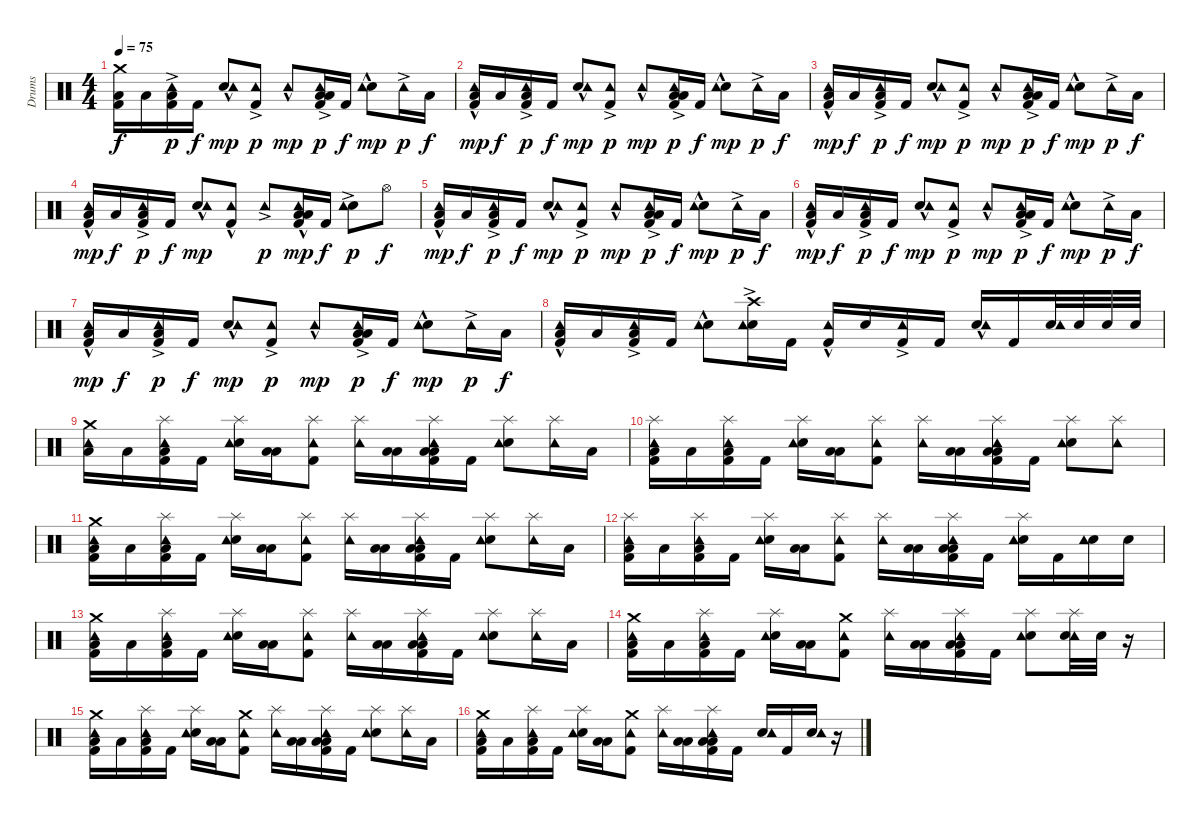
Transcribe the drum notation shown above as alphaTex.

\track ("Drums" "Drums") {instrument percussion}
\staff {score}
\articulation defaults
\ts (4 4)
\tempo 75
\clef neutral
\ks c
("Kick (hit) 2" "Low Floor Tom (hit)" "Crash medium (hit)").16{dy f} "Low Tom (hit)".16 ("Kick (hit) 2" "Low Floor Tom (hit)" "Tambourine (hit)"{ac}).16{dy p} "Kick (hit) 2".16{dy f} ("Snare (hit) 2" "Tambourine (hit)"{hac}).8{dy mp} ("Kick (hit) 2" "Tambourine (hit)"{ac}).8{dy p} "Tambourine (hit)"{hac}.8{dy mp} ("Kick (hit) 2" "Low Floor Tom (hit)" "Low Tom (hit)" "Tambourine (hit)"{ac}).16{dy p} "Kick (hit) 2".16{dy f} ("Snare (hit) 2" "Tambourine (hit)"{hac}).8{dy mp} "Tambourine (hit)"{ac}.16{dy p} "Low Tom (hit)".16{dy f} |
("Kick (hit) 2" "Low Floor Tom (hit)" "Tambourine (hit)"{hac}).16{dy mp} "Low Tom (hit)".16{dy f} ("Kick (hit) 2" "Low Floor Tom (hit)" "Tambourine (hit)"{ac}).16{dy p} "Kick (hit) 2".16{dy f} ("Snare (hit) 2" "Tambourine (hit)"{hac}).8{dy mp} ("Kick (hit) 2" "Tambourine (hit)"{ac}).8{dy p} "Tambourine (hit)"{hac}.8{dy mp} ("Kick (hit) 2" "Low Floor Tom (hit)" "Low Tom (hit)" "Tambourine (hit)"{ac}).16{dy p} "Kick (hit) 2".16{dy f} ("Snare (hit) 2" "Tambourine (hit)"{hac}).8{dy mp} "Tambourine (hit)"{ac}.16{dy p} "Low Tom (hit)".16{dy f} |
("Kick (hit) 2" "Low Floor Tom (hit)" "Tambourine (hit)"{hac}).16{dy mp} "Low Tom (hit)".16{dy f} ("Kick (hit) 2" "Low Floor Tom (hit)" "Tambourine (hit)"{ac}).16{dy p} "Kick (hit) 2".16{dy f} ("Snare (hit) 2" "Tambourine (hit)"{hac}).8{dy mp} ("Kick (hit) 2" "Tambourine (hit)"{ac}).8{dy p} "Tambourine (hit)"{hac}.8{dy mp} ("Kick (hit) 2" "Low Floor Tom (hit)" "Low Tom (hit)" "Tambourine (hit)"{ac}).16{dy p} "Kick (hit) 2".16{dy f} ("Snare (hit) 2" "Tambourine (hit)"{hac}).8{dy mp} "Tambourine (hit)"{ac}.16{dy p} "Low Tom (hit)".16{dy f} |
("Kick (hit) 2" "Low Floor Tom (hit)" "Tambourine (hit)"{hac}).16{dy mp} "Low Tom (hit)".16{dy f} ("Kick (hit) 2" "Low Floor Tom (hit)" "Tambourine (hit)"{ac}).16{dy p} "Kick (hit) 2".16{dy f} ("Snare (hit) 2" "Tambourine (hit)"{hac}).8{dy mp} ("Kick (hit) 2" "Tambourine (hit)"{hac}).8 "Tambourine (hit)"{ac}.8{dy p} ("Kick (hit) 2" "Low Floor Tom (hit)" "Low Tom (hit)" "Tambourine (hit)"{hac}).16{dy mp} "Kick (hit) 2".16{dy f} ("Snare (hit) 2" "Tambourine (hit)"{ac}).8{dy p} "Hi-Hat (open)".8{dy f} |
("Kick (hit) 2" "Low Floor Tom (hit)" "Tambourine (hit)"{hac}).16{dy mp} "Low Tom (hit)".16{dy f} ("Kick (hit) 2" "Low Floor Tom (hit)" "Tambourine (hit)"{ac}).16{dy p} "Kick (hit) 2".16{dy f} ("Snare (hit) 2" "Tambourine (hit)"{hac}).8{dy mp} ("Kick (hit) 2" "Tambourine (hit)"{ac}).8{dy p} "Tambourine (hit)"{hac}.8{dy mp} ("Kick (hit) 2" "Low Floor Tom (hit)" "Low Tom (hit)" "Tambourine (hit)"{ac}).16{dy p} "Kick (hit) 2".16{dy f} ("Snare (hit) 2" "Tambourine (hit)"{hac}).8{dy mp} "Tambourine (hit)"{ac}.16{dy p} "Low Tom (hit)".16{dy f} |
("Kick (hit) 2" "Low Floor Tom (hit)" "Tambourine (hit)"{hac}).16{dy mp} "Low Tom (hit)".16{dy f} ("Kick (hit) 2" "Low Floor Tom (hit)" "Tambourine (hit)"{ac}).16{dy p} "Kick (hit) 2".16{dy f} ("Snare (hit) 2" "Tambourine (hit)"{hac}).8{dy mp} ("Kick (hit) 2" "Tambourine (hit)"{ac}).8{dy p} "Tambourine (hit)"{hac}.8{dy mp} ("Kick (hit) 2" "Low Floor Tom (hit)" "Low Tom (hit)" "Tambourine (hit)"{ac}).16{dy p} "Kick (hit) 2".16{dy f} ("Snare (hit) 2" "Tambourine (hit)"{hac}).8{dy mp} "Tambourine (hit)"{ac}.16{dy p} "Low Tom (hit)".16{dy f} |
("Kick (hit) 2" "Low Floor Tom (hit)" "Tambourine (hit)"{hac}).16{dy mp} "Low Tom (hit)".16{dy f} ("Kick (hit) 2" "Low Floor Tom (hit)" "Tambourine (hit)"{ac}).16{dy p} "Kick (hit) 2".16{dy f} ("Snare (hit) 2" "Tambourine (hit)"{hac}).8{dy mp} ("Kick (hit) 2" "Tambourine (hit)"{ac}).8{dy p} "Tambourine (hit)"{hac}.8{dy mp} ("Kick (hit) 2" "Low Floor Tom (hit)" "Low Tom (hit)" "Tambourine (hit)"{ac}).16{dy p} "Kick (hit) 2".16{dy f} ("Snare (hit) 2" "Tambourine (hit)"{hac}).8{dy mp} "Tambourine (hit)"{ac}.16{dy p} "Low Tom (hit)".16{dy f} |
("Kick (hit) 2" "Low Floor Tom (hit)" "Tambourine (hit)"{hac}).16 "Low Tom (hit)".16 ("Kick (hit) 2" "Low Floor Tom (hit)" "Tambourine (hit)"{ac}).16 "Kick (hit) 2".16 ("Snare (hit) 2" "Tambourine (hit)"{hac}).8 ("Snare (hit) 2" "Crash high (hit)" "Tambourine (hit)"{ac}).16 "Kick (hit) 2".16 ("Kick (hit) 2" "Tambourine (hit)"{hac}).16 "Snare (hit) 2".16 ("Kick (hit) 2" "Tambourine (hit)"{ac}).16 "Kick (hit) 2".16 ("Snare (hit) 2" "Tambourine (hit)"{hac}).16 "Kick (hit) 2".16 ("Snare (hit) 2" "Tambourine (hit)").32 "Snare (hit) 2".32 "Snare (hit) 2".32 "Snare (hit) 2".32 |
("Tambourine (hit)" "Low Floor Tom (hit)" "Crash medium (hit)").16 "Low Tom (hit)".16 ("Kick (hit) 2" "Low Floor Tom (hit)" "Splash (hit)" "Tambourine (hit)").16 "Kick (hit) 2".16 ("Snare (hit) 2" "Splash (hit)" "Tambourine (hit)").16 ("Low Tom (hit)" "Low Floor Tom (hit)").16 ("Kick (hit) 2" "Splash (hit)" "Tambourine (hit)").8 ("Splash (hit)" "Tambourine (hit)").16 ("Low Tom (hit)" "Low Floor Tom (hit)").16 ("Kick (hit) 2" "Low Floor Tom (hit)" "Low Tom (hit)" "Splash (hit)" "Tambourine (hit)").16 "Kick (hit) 2".16 ("Snare (hit) 2" "Splash (hit)" "Tambourine (hit)").8 ("Splash (hit)" "Tambourine (hit)").16 "Low Tom (hit)".16 |
("Kick (hit) 2" "Low Floor Tom (hit)" "Splash (hit)" "Tambourine (hit)").16 "Low Tom (hit)".16 ("Kick (hit) 2" "Low Floor Tom (hit)" "Splash (hit)" "Tambourine (hit)").16 "Kick (hit) 2".16 ("Snare (hit) 2" "Splash (hit)" "Tambourine (hit)").16 ("Low Tom (hit)" "Low Floor Tom (hit)").16 ("Kick (hit) 2" "Splash (hit)" "Tambourine (hit)").8 ("Splash (hit)" "Tambourine (hit)").16 ("Low Tom (hit)" "Low Floor Tom (hit)").16 ("Kick (hit) 2" "Low Floor Tom (hit)" "Low Tom (hit)" "Splash (hit)" "Tambourine (hit)").16 "Kick (hit) 2".16 ("Snare (hit) 2" "Splash (hit)" "Tambourine (hit)").8 ("Splash (hit)" "Tambourine (hit)").8 |
("Kick (hit) 2" "Low Floor Tom (hit)" "Crash medium (hit)" "Tambourine (hit)").16 "Low Tom (hit)".16 ("Kick (hit) 2" "Low Floor Tom (hit)" "Splash (hit)" "Tambourine (hit)").16 "Kick (hit) 2".16 ("Snare (hit) 2" "Splash (hit)" "Tambourine (hit)").16 ("Low Tom (hit)" "Low Floor Tom (hit)").16 ("Kick (hit) 2" "Splash (hit)" "Tambourine (hit)").8 ("Splash (hit)" "Tambourine (hit)").16 ("Low Tom (hit)" "Low Floor Tom (hit)").16 ("Kick (hit) 2" "Low Floor Tom (hit)" "Low Tom (hit)" "Splash (hit)" "Tambourine (hit)").16 "Kick (hit) 2".16 ("Snare (hit) 2" "Splash (hit)" "Tambourine (hit)").8 ("Splash (hit)" "Tambourine (hit)").16 "Low Tom (hit)".16 |
("Kick (hit) 2" "Low Floor Tom (hit)" "Splash (hit)" "Tambourine (hit)").16 "Low Tom (hit)".16 ("Kick (hit) 2" "Low Floor Tom (hit)" "Splash (hit)" "Tambourine (hit)").16 "Kick (hit) 2".16 ("Snare (hit) 2" "Splash (hit)" "Tambourine (hit)").16 ("Low Tom (hit)" "Low Floor Tom (hit)").16 ("Kick (hit) 2" "Splash (hit)" "Tambourine (hit)").8 ("Splash (hit)" "Tambourine (hit)").16 ("Low Tom (hit)" "Low Floor Tom (hit)").16 ("Kick (hit) 2" "Low Floor Tom (hit)" "Low Tom (hit)" "Splash (hit)" "Tambourine (hit)").16 "Kick (hit) 2".16 ("Snare (hit) 2" "Tambourine (hit)" "Splash (hit)").16 "Kick (hit) 2".16 ("Snare (hit) 2" "Tambourine (hit)").16 "Snare (hit) 2".16 |
("Kick (hit) 2" "Low Floor Tom (hit)" "Crash medium (hit)" "Tambourine (hit)").16 "Low Tom (hit)".16 ("Kick (hit) 2" "Low Floor Tom (hit)" "Splash (hit)" "Tambourine (hit)").16 "Kick (hit) 2".16 ("Snare (hit) 2" "Splash (hit)" "Tambourine (hit)").16 ("Low Tom (hit)" "Low Floor Tom (hit)").16 ("Kick (hit) 2" "Splash (hit)" "Tambourine (hit)").8 ("Splash (hit)" "Tambourine (hit)").16 ("Low Tom (hit)" "Low Floor Tom (hit)").16 ("Kick (hit) 2" "Low Floor Tom (hit)" "Low Tom (hit)" "Splash (hit)" "Tambourine (hit)").16 "Kick (hit) 2".16 ("Snare (hit) 2" "Splash (hit)" "Tambourine (hit)").8 ("Splash (hit)" "Tambourine (hit)").16 "Low Tom (hit)".16 |
("Kick (hit) 2" "Low Floor Tom (hit)" "Crash medium (hit)" "Tambourine (hit)").16 "Low Tom (hit)".16 ("Kick (hit) 2" "Low Floor Tom (hit)" "Splash (hit)" "Tambourine (hit)").16 "Kick (hit) 2".16 ("Snare (hit) 2" "Splash (hit)" "Tambourine (hit)").16 ("Low Tom (hit)" "Low Floor Tom (hit)").16 ("Kick (hit) 2" "Crash medium (hit)" "Tambourine (hit)").8 ("Splash (hit)" "Tambourine (hit)").16 ("Low Tom (hit)" "Low Floor Tom (hit)").16 ("Kick (hit) 2" "Low Floor Tom (hit)" "Low Tom (hit)" "Splash (hit)" "Tambourine (hit)").16 "Kick (hit) 2".16 ("Snare (hit) 2" "Splash (hit)" "Tambourine (hit)").8 ("Splash (hit)" "Tambourine (hit)" "Snare (hit) 2").32 "Snare (hit) 2".32 r.16 |
("Kick (hit) 2" "Low Floor Tom (hit)" "Crash medium (hit)" "Tambourine (hit)").16 "Low Tom (hit)".16 ("Kick (hit) 2" "Low Floor Tom (hit)" "Splash (hit)" "Tambourine (hit)").16 "Kick (hit) 2".16 ("Snare (hit) 2" "Splash (hit)" "Tambourine (hit)").16 ("Low Tom (hit)" "Low Floor Tom (hit)").16 ("Kick (hit) 2" "Crash medium (hit)" "Tambourine (hit)").8 ("Splash (hit)" "Tambourine (hit)").16 ("Low Tom (hit)" "Low Floor Tom (hit)").16 ("Kick (hit) 2" "Low Floor Tom (hit)" "Low Tom (hit)" "Splash (hit)" "Tambourine (hit)").16 "Kick (hit) 2".16 ("Snare (hit) 2" "Splash (hit)" "Tambourine (hit)").8 ("Splash (hit)" "Tambourine (hit)").16 "Low Tom (hit)".16 |
("Kick (hit) 2" "Low Floor Tom (hit)" "Crash medium (hit)" "Tambourine (hit)").16 "Low Tom (hit)".16 ("Kick (hit) 2" "Low Floor Tom (hit)" "Splash (hit)" "Tambourine (hit)").16 "Kick (hit) 2".16 ("Snare (hit) 2" "Splash (hit)" "Tambourine (hit)").16 ("Low Tom (hit)" "Low Floor Tom (hit)").16 ("Kick (hit) 2" "Crash medium (hit)" "Tambourine (hit)").8 ("Splash (hit)" "Tambourine (hit)").16 ("Low Tom (hit)" "Low Floor Tom (hit)").16 ("Kick (hit) 2" "Low Floor Tom (hit)" "Low Tom (hit)" "Splash (hit)" "Tambourine (hit)").16 "Kick (hit) 2".16 ("Snare (hit) 2" "Tambourine (hit)").16 "Kick (hit) 2".16 ("Snare (hit) 2" "Tambourine (hit)").16 r.16
